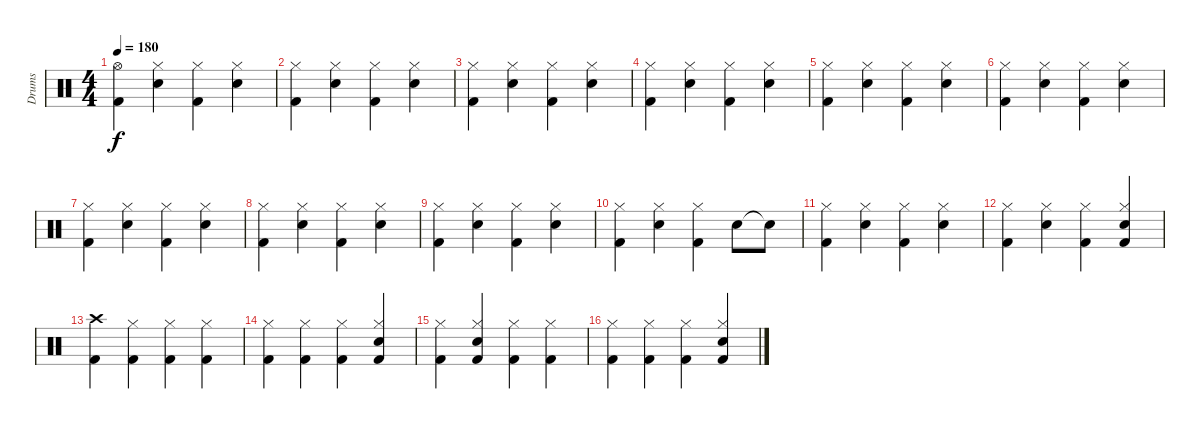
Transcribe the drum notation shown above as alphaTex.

\track ("Drums" "Drums") {instrument percussion}
\staff {score}
\articulation defaults
\ts (4 4)
\tempo 180
\clef neutral
\ks c
("Hi-Hat (open)" "Kick (hit) 2").4{dy f} ("Hi-Hat (closed)" "Snare (hit) 2").4 ("Hi-Hat (closed)" "Kick (hit) 2").4 ("Hi-Hat (closed)" "Snare (hit) 2").4 |
("Hi-Hat (closed)" "Kick (hit) 2").4 ("Hi-Hat (closed)" "Snare (hit) 2").4 ("Hi-Hat (closed)" "Kick (hit) 2").4 ("Hi-Hat (closed)" "Snare (hit) 2").4 |
("Hi-Hat (closed)" "Kick (hit) 2").4 ("Hi-Hat (closed)" "Snare (hit) 2").4 ("Hi-Hat (closed)" "Kick (hit) 2").4 ("Hi-Hat (closed)" "Snare (hit) 2").4 |
("Hi-Hat (closed)" "Kick (hit) 2").4 ("Hi-Hat (closed)" "Snare (hit) 2").4 ("Hi-Hat (closed)" "Kick (hit) 2").4 ("Hi-Hat (closed)" "Snare (hit) 2").4 |
("Hi-Hat (closed)" "Kick (hit) 2").4 ("Hi-Hat (closed)" "Snare (hit) 2").4 ("Hi-Hat (closed)" "Kick (hit) 2").4 ("Hi-Hat (closed)" "Snare (hit) 2").4 |
("Hi-Hat (closed)" "Kick (hit) 2").4 ("Hi-Hat (closed)" "Snare (hit) 2").4 ("Hi-Hat (closed)" "Kick (hit) 2").4 ("Hi-Hat (closed)" "Snare (hit) 2").4 |
("Hi-Hat (closed)" "Kick (hit) 2").4 ("Hi-Hat (closed)" "Snare (hit) 2").4 ("Hi-Hat (closed)" "Kick (hit) 2").4 ("Hi-Hat (closed)" "Snare (hit) 2").4 |
("Hi-Hat (closed)" "Kick (hit) 2").4 ("Hi-Hat (closed)" "Snare (hit) 2").4 ("Hi-Hat (closed)" "Kick (hit) 2").4 ("Hi-Hat (closed)" "Snare (hit) 2").4 |
("Hi-Hat (closed)" "Kick (hit) 2").4 ("Hi-Hat (closed)" "Snare (hit) 2").4 ("Hi-Hat (closed)" "Kick (hit) 2").4 ("Hi-Hat (closed)" "Snare (hit) 2").4 |
("Hi-Hat (closed)" "Kick (hit) 2").4 ("Hi-Hat (closed)" "Snare (hit) 2").4 ("Hi-Hat (closed)" "Kick (hit) 2").4 "Snare (hit) 2".8 "Snare (hit)"{t}.8 |
("Hi-Hat (closed)" "Kick (hit) 2").4 ("Hi-Hat (closed)" "Snare (hit) 2").4 ("Hi-Hat (closed)" "Kick (hit) 2").4 ("Hi-Hat (closed)" "Snare (hit) 2").4 |
("Hi-Hat (closed)" "Kick (hit) 2").4 ("Hi-Hat (closed)" "Snare (hit) 2").4 ("Hi-Hat (closed)" "Kick (hit) 2").4 ("Hi-Hat (closed)" "Snare (hit) 2" "Kick (hit) 2").4 |
("Crash high (hit)" "Kick (hit) 2").4 ("Hi-Hat (closed)" "Kick (hit) 2").4 ("Hi-Hat (closed)" "Kick (hit) 2").4 ("Hi-Hat (closed)" "Kick (hit) 2").4 |
("Hi-Hat (closed)" "Kick (hit) 2").4 ("Hi-Hat (closed)" "Kick (hit) 2").4 ("Hi-Hat (closed)" "Kick (hit) 2").4 ("Hi-Hat (closed)" "Snare (hit) 2" "Kick (hit) 2").4 |
("Hi-Hat (closed)" "Kick (hit) 2").4 ("Hi-Hat (closed)" "Snare (hit) 2" "Kick (hit) 2").4 ("Hi-Hat (closed)" "Kick (hit) 2").4 ("Hi-Hat (closed)" "Kick (hit) 2").4 |
("Hi-Hat (closed)" "Kick (hit) 2").4 ("Hi-Hat (closed)" "Kick (hit) 2").4 ("Hi-Hat (closed)" "Kick (hit) 2").4 ("Hi-Hat (closed)" "Snare (hit) 2" "Kick (hit) 2").4
